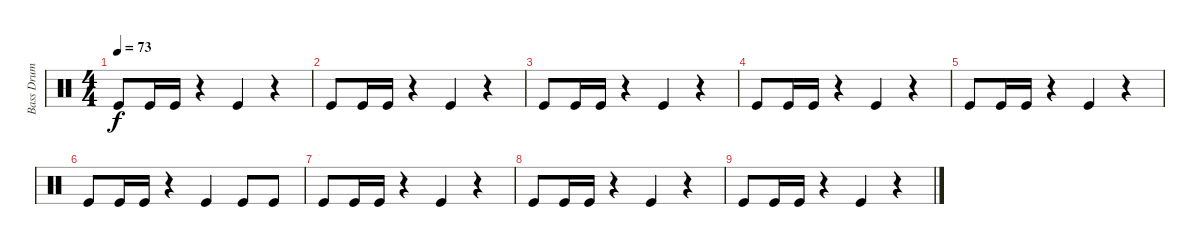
\track ("Bass Drum" "Bass Drum") {instrument percussion}
\staff {score}
\articulation defaults
\ts (4 4)
\tempo 73
\clef neutral
\ks c "Kick (hit)".8{dy f} "Kick (hit)".16 "Kick (hit)".16
r.4 "Kick (hit)".4 r.4 |
"Kick (hit)".8 "Kick (hit)".16 "Kick (hit)".16 r.4 "Kick (hit)".4 r.4 |
"Kick (hit)".8 "Kick (hit)".16 "Kick (hit)".16 r.4 "Kick (hit)".4 r.4 |
"Kick (hit)".8{volume 7} "Kick (hit)".16 "Kick (hit)".16 r.4 "Kick (hit)".4 r.4 |
"Kick (hit)".8{volume 4} "Kick (hit)".16 "Kick (hit)".16 r.4 "Kick (hit)".4 r.4 |
"Kick (hit)".8{volume 0} "Kick (hit)".16 "Kick (hit)".16 r.4 "Kick (hit)".4 "Kick (hit)".8 "Kick (hit)".8 |
"Kick (hit)".8 "Kick (hit)".16 "Kick (hit)".16 r.4 "Kick (hit)".4 r.4 |
"Kick (hit)".8 "Kick (hit)".16 "Kick (hit)".16 r.4 "Kick (hit)".4 r.4 |
"Kick (hit)".8 "Kick (hit)".16 "Kick (hit)".16 r.4 "Kick (hit)".4 r.4
